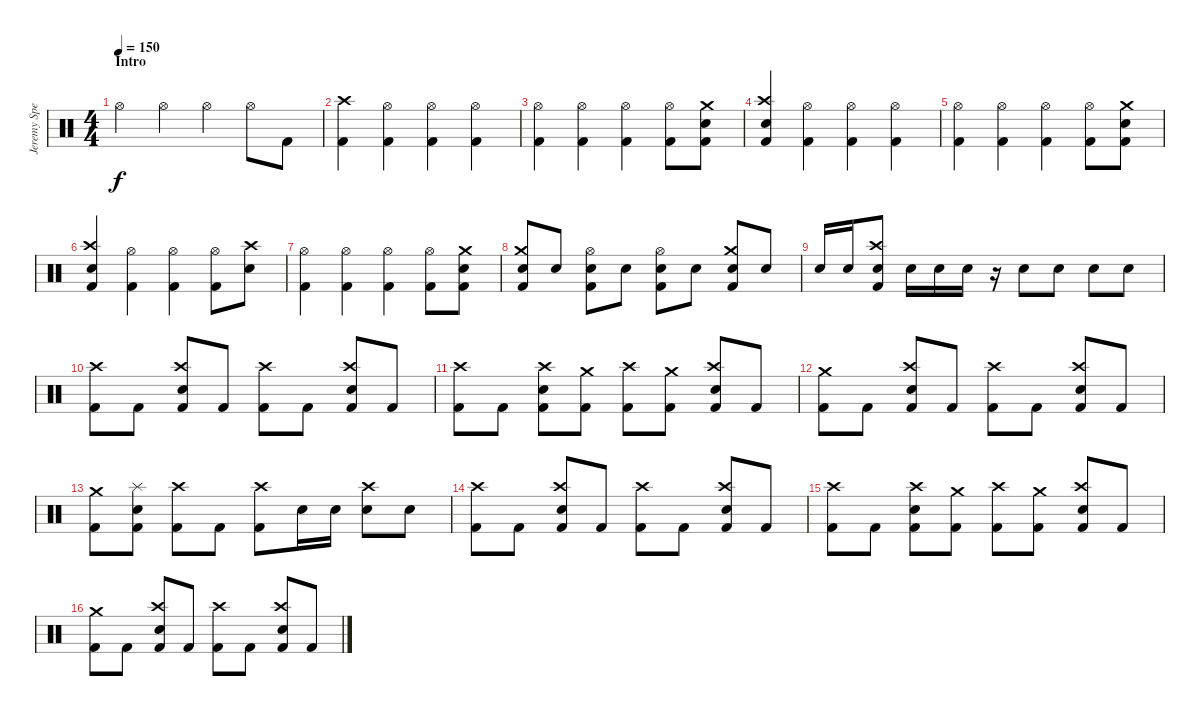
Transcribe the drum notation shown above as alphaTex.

\track ("Jeremy Spencer – Drums" "Jeremy Spe") {instrument percussion}
\staff {score}
\articulation defaults
\ts (4 4)
\section ("" "Intro")
\tempo 150
\clef neutral
\ks c "Hi-Hat (open)".4{dy f} "Hi-Hat (open)".4 "Hi-Hat (open)".4 "Hi-Hat (open)".8 "Kick (hit) 2".8
|
("Crash high (hit)" "Kick (hit) 2").4 ("Hi-Hat (open)" "Kick (hit) 2").4 ("Hi-Hat (open)" "Kick (hit) 2").4 ("Hi-Hat (open)" "Kick (hit) 2").4 |
("Hi-Hat (open)" "Kick (hit) 2").4 ("Hi-Hat (open)" "Kick (hit) 2").4 ("Hi-Hat (open)" "Kick (hit) 2").4 ("Hi-Hat (open)" "Kick (hit) 2").8 ("Crash medium (hit)" "Snare (hit) 2" "Kick (hit) 2").8 |
("Crash high (hit)" "Snare (hit) 2" "Kick (hit) 2").4 ("Hi-Hat (open)" "Kick (hit) 2").4 ("Hi-Hat (open)" "Kick (hit) 2").4 ("Hi-Hat (open)" "Kick (hit) 2").4 |
("Hi-Hat (open)" "Kick (hit) 2").4 ("Hi-Hat (open)" "Kick (hit) 2").4 ("Hi-Hat (open)" "Kick (hit) 2").4 ("Hi-Hat (open)" "Kick (hit) 2").8 ("Crash medium (hit)" "Snare (hit) 2" "Kick (hit) 2").8 |
("Crash high (hit)" "Snare (hit) 2" "Kick (hit) 2").4 ("Hi-Hat (open)" "Kick (hit) 2").4 ("Hi-Hat (open)" "Kick (hit) 2").4 ("Hi-Hat (open)" "Kick (hit) 2").8 ("Crash high (hit)" "Snare (hit) 2").8 |
("Hi-Hat (open)" "Kick (hit) 2").4 ("Hi-Hat (open)" "Kick (hit) 2").4 ("Hi-Hat (open)" "Kick (hit) 2").4 ("Hi-Hat (open)" "Kick (hit) 2").8 ("Crash medium (hit)" "Snare (hit) 2" "Kick (hit) 2").8 |
("Crash medium (hit)" "Snare (hit) 2" "Kick (hit) 2").8 "Snare (hit) 2".8 ("Hi-Hat (open)" "Snare (hit) 2" "Kick (hit) 2").8 "Snare (hit) 2".8 ("Hi-Hat (open)" "Snare (hit) 2" "Kick (hit) 2").8 "Snare (hit) 2".8 ("Crash medium (hit)" "Snare (hit) 2" "Kick (hit) 2").8 "Snare (hit) 2".8 |
"Snare (hit) 2".16 "Snare (hit) 2".16 ("Crash high (hit)" "Snare (hit) 2" "Kick (hit) 2").8 "Snare (hit) 2".16 "Snare (hit) 2".16 "Snare (hit) 2".16 r.16 "Snare (hit) 2".8 "Snare (hit) 2".8 "Snare (hit) 2".8 "Snare (hit) 2".8 |
("Crash high (hit)" "Kick (hit) 2").8 "Kick (hit) 2".8 ("Crash high (hit)" "Snare (hit) 2" "Kick (hit) 2").8 "Kick (hit) 2".8 ("Crash high (hit)" "Kick (hit) 2").8 "Kick (hit) 2".8 ("Crash high (hit)" "Snare (hit) 2" "Kick (hit) 2").8 "Kick (hit) 2".8 |
("Crash high (hit)" "Kick (hit) 2").8 "Kick (hit) 2".8 ("Crash high (hit)" "Snare (hit) 2" "Kick (hit) 2").8 ("Crash medium (hit)" "Kick (hit) 2").8 ("Crash high (hit)" "Kick (hit) 2").8 ("Crash medium (hit)" "Kick (hit) 2").8 ("Crash high (hit)" "Snare (hit) 2" "Kick (hit) 2").8 "Kick (hit) 2".8 |
("Crash medium (hit)" "Kick (hit) 2").8 "Kick (hit) 2".8 ("Crash high (hit)" "Snare (hit) 2" "Kick (hit) 2").8 "Kick (hit) 2".8 ("Crash high (hit)" "Kick (hit) 2").8 "Kick (hit) 2".8 ("Crash high (hit)" "Snare (hit) 2" "Kick (hit) 2").8 "Kick (hit) 2".8 |
("Crash medium (hit)" "Kick (hit) 2").8 ("Splash (hit)" "Snare (hit) 2" "Kick (hit) 2").8 ("Crash high (hit)" "Kick (hit) 2").8 "Kick (hit) 2".8 ("Crash high (hit)" "Kick (hit) 2").8 "Snare (hit) 2".16 "Snare (hit) 2".16 ("Crash high (hit)" "Snare (hit) 2").8 "Snare (hit) 2".8 |
("Crash high (hit)" "Kick (hit) 2").8 "Kick (hit) 2".8 ("Crash high (hit)" "Snare (hit) 2" "Kick (hit) 2").8 "Kick (hit) 2".8 ("Crash high (hit)" "Kick (hit) 2").8 "Kick (hit) 2".8 ("Crash high (hit)" "Snare (hit) 2" "Kick (hit) 2").8 "Kick (hit) 2".8 |
("Crash high (hit)" "Kick (hit) 2").8 "Kick (hit) 2".8 ("Crash high (hit)" "Snare (hit) 2" "Kick (hit) 2").8 ("Crash medium (hit)" "Kick (hit) 2").8 ("Crash high (hit)" "Kick (hit) 2").8 ("Crash medium (hit)" "Kick (hit) 2").8 ("Crash high (hit)" "Snare (hit) 2" "Kick (hit) 2").8 "Kick (hit) 2".8 |
("Crash medium (hit)" "Kick (hit) 2").8 "Kick (hit) 2".8 ("Crash high (hit)" "Snare (hit) 2" "Kick (hit) 2").8 "Kick (hit) 2".8 ("Crash high (hit)" "Kick (hit) 2").8 "Kick (hit) 2".8 ("Crash high (hit)" "Snare (hit) 2" "Kick (hit) 2").8 "Kick (hit) 2".8
